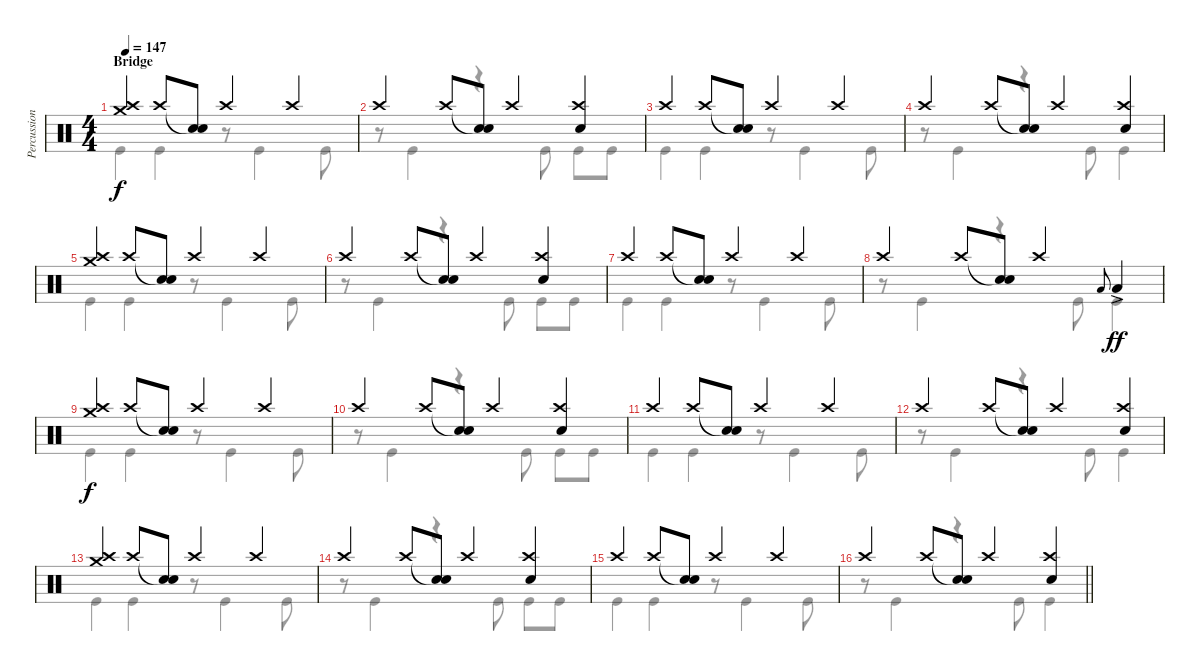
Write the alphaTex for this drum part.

\track ("Percussion" "Percussion") {instrument percussion}
\staff {score}
\articulation defaults
\voice
\ts (4 4)
\section ("" "Bridge")
\tempo 147
\clef neutral
\ks aminor
("Crash medium (hit)" "Crash high (hit)").4{dy f} "Crash high (hit)".8 ("Snare (hit)"{t} "Electric Snare (hit)").8 "Crash high (hit)".4 "Crash high (hit)".4 |
"Crash high (hit)".4 "Crash high (hit)".8 ("Snare (hit)"{t} "Electric Snare (hit)").8 "Crash high (hit)".4 ("Crash high (hit)" "Electric Snare (hit)").4 |
"Crash high (hit)".4 "Crash high (hit)".8 ("Snare (hit)"{t} "Electric Snare (hit)").8 "Crash high (hit)".4 "Crash high (hit)".4 |
"Crash high (hit)".4 "Crash high (hit)".8 ("Snare (hit)"{t} "Electric Snare (hit)").8 "Crash high (hit)".4 ("Crash high (hit)" "Electric Snare (hit)").4 |
("Crash medium (hit)" "Crash high (hit)").4 "Crash high (hit)".8 ("Snare (hit)"{t} "Electric Snare (hit)").8 "Crash high (hit)".4 "Crash high (hit)".4 |
"Crash high (hit)".4 "Crash high (hit)".8 ("Snare (hit)"{t} "Electric Snare (hit)").8 "Crash high (hit)".4 ("Crash high (hit)" "Electric Snare (hit)").4 |
"Crash high (hit)".4 "Crash high (hit)".8 ("Snare (hit)"{t} "Electric Snare (hit)").8 "Crash high (hit)".4 "Crash high (hit)".4 |
"Crash high (hit)".4 "Crash high (hit)".8 ("Snare (hit)"{t} "Electric Snare (hit)").8 "Crash high (hit)".4 "Low Tom (hit)".8{gr onbeat} "Low Tom (hit)"{ac}.4{dy ff} |
("Crash medium (hit)" "Crash high (hit)").4{dy f} "Crash high (hit)".8 ("Snare (hit)"{t} "Electric Snare (hit)").8 "Crash high (hit)".4 "Crash high (hit)".4 |
"Crash high (hit)".4 "Crash high (hit)".8 ("Snare (hit)"{t} "Electric Snare (hit)").8 "Crash high (hit)".4 ("Crash high (hit)" "Electric Snare (hit)").4 |
"Crash high (hit)".4 "Crash high (hit)".8 ("Snare (hit)"{t} "Electric Snare (hit)").8 "Crash high (hit)".4 "Crash high (hit)".4 |
"Crash high (hit)".4 "Crash high (hit)".8 ("Snare (hit)"{t} "Electric Snare (hit)").8 "Crash high (hit)".4 ("Crash high (hit)" "Electric Snare (hit)").4 |
("Crash medium (hit)" "Crash high (hit)").4 "Crash high (hit)".8 ("Snare (hit)"{t} "Electric Snare (hit)").8 "Crash high (hit)".4 "Crash high (hit)".4 |
"Crash high (hit)".4 "Crash high (hit)".8 ("Snare (hit)"{t} "Electric Snare (hit)").8 "Crash high (hit)".4 ("Crash high (hit)" "Electric Snare (hit)").4 |
"Crash high (hit)".4 "Crash high (hit)".8 ("Snare (hit)"{t} "Electric Snare (hit)").8 "Crash high (hit)".4 "Crash high (hit)".4 |
\barLineRight lightlight "Crash high (hit)".4 "Crash high (hit)".8
("Snare (hit)"{t} "Electric Snare (hit)").8 "Crash high (hit)".4 ("Crash high (hit)" "Electric Snare (hit)").4
\voice
\clef neutral
\ottava regular
\simile none
\ks aminor "Kick (hit)".4{dy f} "Kick (hit)".4
r.8 "Kick (hit)".4 "Kick (hit)".8 |
r.8 "Kick (hit)".4 r.4 "Kick (hit)".8 "Kick (hit)".8 "Kick (hit)".8 |
"Kick (hit)".4 "Kick (hit)".4 r.8 "Kick (hit)".4 "Kick (hit)".8 |
r.8 "Kick (hit)".4 r.4 "Kick (hit)".8 "Kick (hit)".4 |
"Kick (hit)".4 "Kick (hit)".4 r.8 "Kick (hit)".4 "Kick (hit)".8 |
r.8 "Kick (hit)".4 r.4 "Kick (hit)".8 "Kick (hit)".8 "Kick (hit)".8 |
"Kick (hit)".4 "Kick (hit)".4 r.8 "Kick (hit)".4 "Kick (hit)".8 |
r.8 "Kick (hit)".4 r.4 "Kick (hit)".8 "Kick (hit)".4 |
"Kick (hit)".4 "Kick (hit)".4 r.8 "Kick (hit)".4 "Kick (hit)".8 |
r.8 "Kick (hit)".4 r.4 "Kick (hit)".8 "Kick (hit)".8 "Kick (hit)".8 |
"Kick (hit)".4 "Kick (hit)".4 r.8 "Kick (hit)".4 "Kick (hit)".8 |
r.8 "Kick (hit)".4 r.4 "Kick (hit)".8 "Kick (hit)".4 |
"Kick (hit)".4 "Kick (hit)".4 r.8 "Kick (hit)".4 "Kick (hit)".8 |
r.8 "Kick (hit)".4 r.4 "Kick (hit)".8 "Kick (hit)".8 "Kick (hit)".8 |
"Kick (hit)".4 "Kick (hit)".4 r.8 "Kick (hit)".4 "Kick (hit)".8 |
\barLineRight lightlight
r.8 "Kick (hit)".4 r.4 "Kick (hit)".8 "Kick (hit)".4
